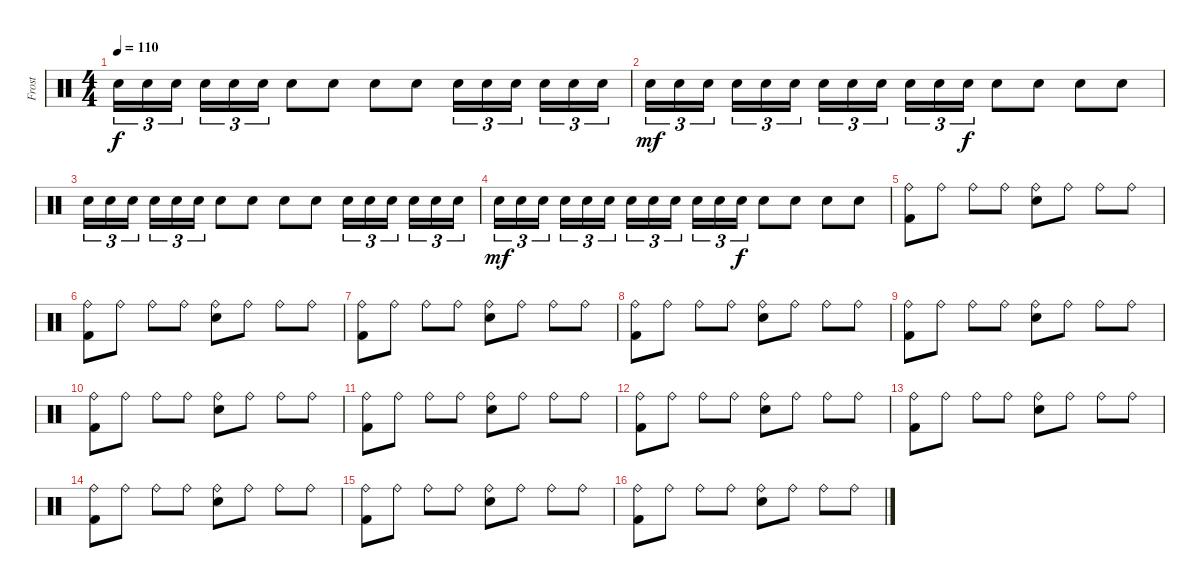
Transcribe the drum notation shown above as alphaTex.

\track ("Frost" "Frost") {instrument percussion}
\staff {score}
\articulation defaults
\ts (4 4)
\tempo 110
\clef neutral
\ks c "Snare (hit) 2".16{tu (3 2) dy f} "Snare (hit) 2".16{tu (3 2)} "Snare (hit) 2".16{tu (3 2)} "Snare (hit) 2".16{tu (3 2)} "Snare (hit) 2".16{tu (3 2)} "Snare (hit) 2".16{tu (3 2)} "Snare (hit) 2".8 "Snare (hit) 2".8 "Snare (hit) 2".8 "Snare (hit) 2".8 "Snare (hit) 2".16{tu (3 2)} "Snare (hit) 2".16{tu (3 2)} "Snare (hit) 2".16{tu (3 2)} "Snare (hit) 2".16{tu (3 2)} "Snare (hit) 2".16{tu (3 2)} "Snare (hit) 2".16{tu (3 2)}
|
"Snare (hit) 2".16{tu (3 2) dy mf} "Snare (hit) 2".16{tu (3 2)} "Snare (hit) 2".16{tu (3 2)} "Snare (hit) 2".16{tu (3 2)} "Snare (hit) 2".16{tu (3 2)} "Snare (hit) 2".16{tu (3 2)} "Snare (hit) 2".16{tu (3 2)} "Snare (hit) 2".16{tu (3 2)} "Snare (hit) 2".16{tu (3 2)} "Snare (hit) 2".16{tu (3 2)} "Snare (hit) 2".16{tu (3 2)} "Snare (hit) 2".16{tu (3 2) dy f} "Snare (hit) 2".8 "Snare (hit) 2".8 "Snare (hit) 2".8 "Snare (hit) 2".8 |
"Snare (hit) 2".16{tu (3 2)} "Snare (hit) 2".16{tu (3 2)} "Snare (hit) 2".16{tu (3 2)} "Snare (hit) 2".16{tu (3 2)} "Snare (hit) 2".16{tu (3 2)} "Snare (hit) 2".16{tu (3 2)} "Snare (hit) 2".8 "Snare (hit) 2".8 "Snare (hit) 2".8 "Snare (hit) 2".8 "Snare (hit) 2".16{tu (3 2)} "Snare (hit) 2".16{tu (3 2)} "Snare (hit) 2".16{tu (3 2)} "Snare (hit) 2".16{tu (3 2)} "Snare (hit) 2".16{tu (3 2)} "Snare (hit) 2".16{tu (3 2)} |
"Snare (hit) 2".16{tu (3 2) dy mf} "Snare (hit) 2".16{tu (3 2)} "Snare (hit) 2".16{tu (3 2)} "Snare (hit) 2".16{tu (3 2)} "Snare (hit) 2".16{tu (3 2)} "Snare (hit) 2".16{tu (3 2)} "Snare (hit) 2".16{tu (3 2)} "Snare (hit) 2".16{tu (3 2)} "Snare (hit) 2".16{tu (3 2)} "Snare (hit) 2".16{tu (3 2)} "Snare (hit) 2".16{tu (3 2)} "Snare (hit) 2".16{tu (3 2) dy f} "Snare (hit) 2".8 "Snare (hit) 2".8 "Snare (hit) 2".8 "Snare (hit) 2".8 |
("Kick (hit) 2" "Ride (bell)").8{volume 13} "Ride (bell)".8 "Ride (bell)".8 "Ride (bell)".8 ("Snare (hit) 2" "Ride (bell)").8 "Ride (bell)".8 "Ride (bell)".8 "Ride (bell)".8 |
("Kick (hit) 2" "Ride (bell)").8 "Ride (bell)".8 "Ride (bell)".8 "Ride (bell)".8 ("Snare (hit) 2" "Ride (bell)").8 "Ride (bell)".8 "Ride (bell)".8 "Ride (bell)".8 |
("Kick (hit) 2" "Ride (bell)").8 "Ride (bell)".8 "Ride (bell)".8 "Ride (bell)".8 ("Snare (hit) 2" "Ride (bell)").8 "Ride (bell)".8 "Ride (bell)".8 "Ride (bell)".8 |
("Kick (hit) 2" "Ride (bell)").8 "Ride (bell)".8 "Ride (bell)".8 "Ride (bell)".8 ("Snare (hit) 2" "Ride (bell)").8 "Ride (bell)".8 "Ride (bell)".8 "Ride (bell)".8 |
("Kick (hit) 2" "Ride (bell)").8 "Ride (bell)".8 "Ride (bell)".8 "Ride (bell)".8 ("Snare (hit) 2" "Ride (bell)").8 "Ride (bell)".8 "Ride (bell)".8 "Ride (bell)".8 |
("Kick (hit) 2" "Ride (bell)").8 "Ride (bell)".8 "Ride (bell)".8 "Ride (bell)".8 ("Snare (hit) 2" "Ride (bell)").8 "Ride (bell)".8 "Ride (bell)".8 "Ride (bell)".8 |
("Kick (hit) 2" "Ride (bell)").8 "Ride (bell)".8 "Ride (bell)".8 "Ride (bell)".8 ("Snare (hit) 2" "Ride (bell)").8 "Ride (bell)".8 "Ride (bell)".8 "Ride (bell)".8 |
("Kick (hit) 2" "Ride (bell)").8 "Ride (bell)".8 "Ride (bell)".8 "Ride (bell)".8 ("Snare (hit) 2" "Ride (bell)").8 "Ride (bell)".8 "Ride (bell)".8 "Ride (bell)".8 |
("Kick (hit) 2" "Ride (bell)").8 "Ride (bell)".8 "Ride (bell)".8 "Ride (bell)".8 ("Snare (hit) 2" "Ride (bell)").8 "Ride (bell)".8 "Ride (bell)".8 "Ride (bell)".8 |
("Kick (hit) 2" "Ride (bell)").8 "Ride (bell)".8 "Ride (bell)".8 "Ride (bell)".8 ("Snare (hit) 2" "Ride (bell)").8 "Ride (bell)".8 "Ride (bell)".8 "Ride (bell)".8 |
("Kick (hit) 2" "Ride (bell)").8 "Ride (bell)".8 "Ride (bell)".8 "Ride (bell)".8 ("Snare (hit) 2" "Ride (bell)").8 "Ride (bell)".8 "Ride (bell)".8 "Ride (bell)".8 |
("Kick (hit) 2" "Ride (bell)").8 "Ride (bell)".8 "Ride (bell)".8 "Ride (bell)".8 ("Snare (hit) 2" "Ride (bell)").8 "Ride (bell)".8 "Ride (bell)".8 "Ride (bell)".8
